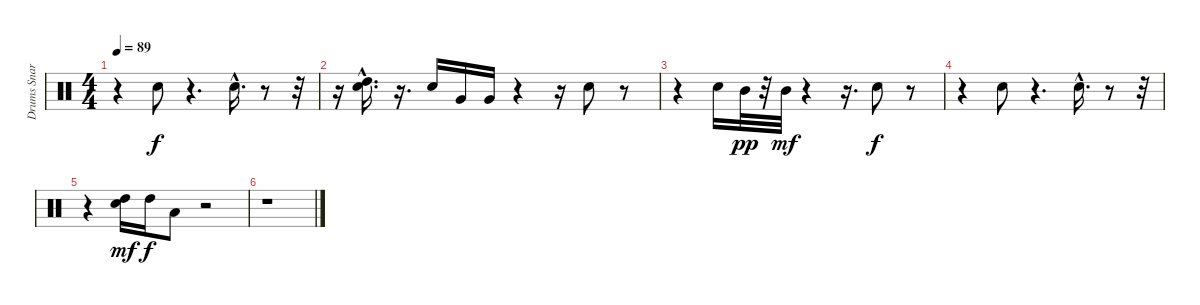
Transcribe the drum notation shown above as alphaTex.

\track ("Drums Snare" "Drums Snar") {instrument percussion}
\staff {score}
\articulation defaults
\ts (4 4)
\tempo 89
\clef neutral
\ks c
r.4{dy f} "Snare (hit) 2".8 r.4{d} "Snare (hit) 2"{hac}.16{d} r.8 r.32 |
r.16 ("Snare (hit) 2"{hac} "High Tom (hit)").16{d} r.16{d} "Snare (hit) 2".16 "Very Low Tom (hit)".16 "Very Low Tom (hit)".16 r.4 r.16 "Snare (hit) 2".8 r.8 |
r.4 "Snare (hit) 2".16 "Mid Tom (hit)".32{dy pp} r.32 "Mid Tom (hit)".32{dy mf} r.4 r.16{d} "Snare (hit) 2".8{dy f} r.8 |
r.4 "Snare (hit) 2".8 r.4{d} "Snare (hit) 2"{hac}.16{d} r.8 r.32 |
r.4 ("Snare (hit) 2" "High Tom (hit)").16{dy mf} "High Tom (hit)".16{dy f} "Low Tom (hit)".8 r.2 |
r.1
